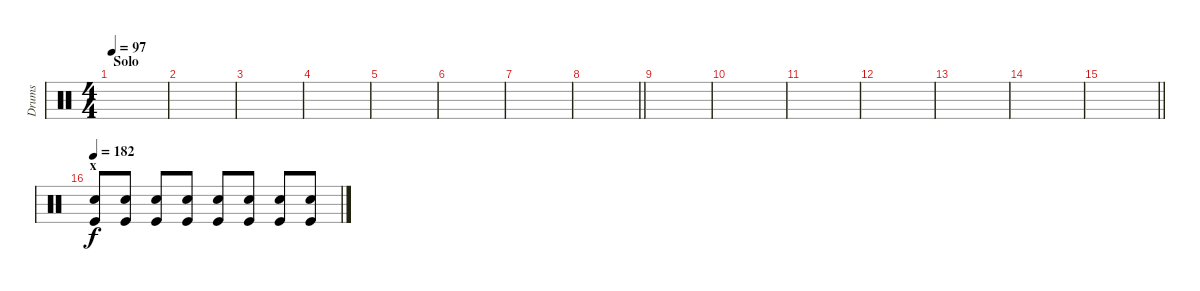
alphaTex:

\track ("Drums" "Drums") {instrument percussion}
\staff
\articulation defaults
\ts (4 4)
\section ("" "Solo")
\tempo 97
\clef neutral
\ks c
|
|
|
|
|
|
|
\barLineRight lightlight
|
|
|
|
|
|
|
\barLineRight lightlight
|
\section ("" "x")
\tempo 182
("Electric Snare (hit)" "Kick (hit)").8{volume 0} ("Electric Snare (hit)" "Kick (hit)").8{volume 14} ("Electric Snare (hit)" "Kick (hit)").8 ("Electric Snare (hit)" "Kick (hit)").8 ("Electric Snare (hit)" "Kick (hit)").8 ("Electric Snare (hit)" "Kick (hit)").8 ("Electric Snare (hit)" "Kick (hit)").8 ("Electric Snare (hit)" "Kick (hit)").8
